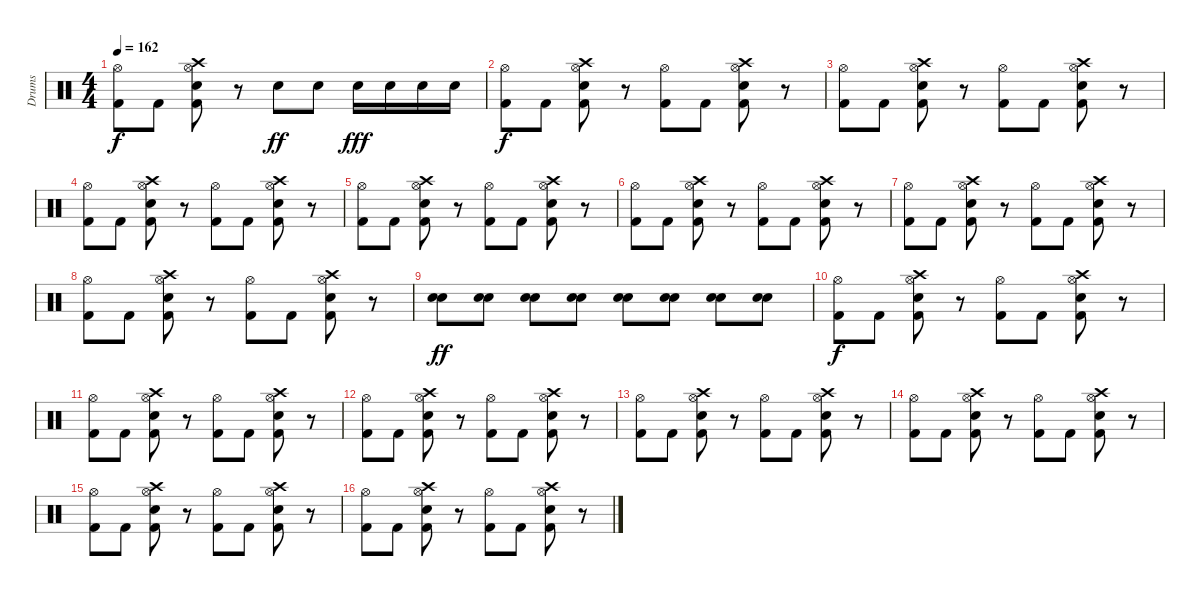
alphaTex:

\track ("Drums" "Drums") {instrument percussion}
\staff {score}
\articulation defaults
\ts (4 4)
\tempo 162
\clef neutral
\ks c
("Hi-Hat (open)" "Kick (hit) 2").8{dy f} "Kick (hit) 2".8 ("Hi-Hat (open)" "Crash high (hit)" "Snare (hit) 2" "Kick (hit) 2").8 r.8 "Snare (hit) 2".8{dy ff} "Snare (hit) 2".8 "Snare (hit) 2".16{dy fff} "Snare (hit) 2".16 "Snare (hit) 2".16 "Snare (hit) 2".16 |
("Hi-Hat (open)" "Kick (hit) 2").8{dy f} "Kick (hit) 2".8 ("Hi-Hat (open)" "Crash high (hit)" "Snare (hit) 2" "Kick (hit) 2").8 r.8 ("Hi-Hat (open)" "Kick (hit) 2").8 "Kick (hit) 2".8 ("Hi-Hat (open)" "Crash high (hit)" "Snare (hit) 2" "Kick (hit) 2").8 r.8 |
("Hi-Hat (open)" "Kick (hit) 2").8 "Kick (hit) 2".8 ("Hi-Hat (open)" "Crash high (hit)" "Snare (hit) 2" "Kick (hit) 2").8 r.8 ("Hi-Hat (open)" "Kick (hit) 2").8 "Kick (hit) 2".8 ("Hi-Hat (open)" "Crash high (hit)" "Snare (hit) 2" "Kick (hit) 2").8 r.8 |
("Hi-Hat (open)" "Kick (hit) 2").8 "Kick (hit) 2".8 ("Hi-Hat (open)" "Crash high (hit)" "Snare (hit) 2" "Kick (hit) 2").8 r.8 ("Hi-Hat (open)" "Kick (hit) 2").8 "Kick (hit) 2".8 ("Hi-Hat (open)" "Crash high (hit)" "Snare (hit) 2" "Kick (hit) 2").8 r.8 |
("Hi-Hat (open)" "Kick (hit) 2").8 "Kick (hit) 2".8 ("Hi-Hat (open)" "Crash high (hit)" "Snare (hit) 2" "Kick (hit) 2").8 r.8 ("Hi-Hat (open)" "Kick (hit) 2").8 "Kick (hit) 2".8 ("Hi-Hat (open)" "Crash high (hit)" "Snare (hit) 2" "Kick (hit) 2").8 r.8 |
("Hi-Hat (open)" "Kick (hit) 2").8 "Kick (hit) 2".8 ("Hi-Hat (open)" "Crash high (hit)" "Snare (hit) 2" "Kick (hit) 2").8 r.8 ("Hi-Hat (open)" "Kick (hit) 2").8 "Kick (hit) 2".8 ("Hi-Hat (open)" "Crash high (hit)" "Snare (hit) 2" "Kick (hit) 2").8 r.8 |
("Hi-Hat (open)" "Kick (hit) 2").8 "Kick (hit) 2".8 ("Hi-Hat (open)" "Crash high (hit)" "Snare (hit) 2" "Kick (hit) 2").8 r.8 ("Hi-Hat (open)" "Kick (hit) 2").8 "Kick (hit) 2".8 ("Hi-Hat (open)" "Crash high (hit)" "Snare (hit) 2" "Kick (hit) 2").8 r.8 |
("Hi-Hat (open)" "Kick (hit) 2").8 "Kick (hit) 2".8 ("Hi-Hat (open)" "Crash high (hit)" "Snare (hit) 2" "Kick (hit) 2").8 r.8 ("Hi-Hat (open)" "Kick (hit) 2").8 "Kick (hit) 2".8 ("Hi-Hat (open)" "Crash high (hit)" "Snare (hit) 2" "Kick (hit) 2").8 r.8 |
("Electric Snare (hit)" "Snare (hit) 2").8{dy ff} ("Electric Snare (hit)" "Snare (hit) 2").8 ("Electric Snare (hit)" "Snare (hit) 2").8 ("Electric Snare (hit)" "Snare (hit) 2").8 ("Electric Snare (hit)" "Snare (hit) 2").8 ("Electric Snare (hit)" "Snare (hit) 2").8 ("Electric Snare (hit)" "Snare (hit) 2").8 ("Electric Snare (hit)" "Snare (hit) 2").8 |
("Hi-Hat (open)" "Kick (hit) 2").8{dy f} "Kick (hit) 2".8 ("Hi-Hat (open)" "Crash high (hit)" "Snare (hit) 2" "Kick (hit) 2").8 r.8 ("Hi-Hat (open)" "Kick (hit) 2").8 "Kick (hit) 2".8 ("Hi-Hat (open)" "Crash high (hit)" "Snare (hit) 2" "Kick (hit) 2").8 r.8 |
("Hi-Hat (open)" "Kick (hit) 2").8 "Kick (hit) 2".8 ("Hi-Hat (open)" "Crash high (hit)" "Snare (hit) 2" "Kick (hit) 2").8 r.8 ("Hi-Hat (open)" "Kick (hit) 2").8 "Kick (hit) 2".8 ("Hi-Hat (open)" "Crash high (hit)" "Snare (hit) 2" "Kick (hit) 2").8 r.8 |
("Hi-Hat (open)" "Kick (hit) 2").8 "Kick (hit) 2".8 ("Hi-Hat (open)" "Crash high (hit)" "Snare (hit) 2" "Kick (hit) 2").8 r.8 ("Hi-Hat (open)" "Kick (hit) 2").8 "Kick (hit) 2".8 ("Hi-Hat (open)" "Crash high (hit)" "Snare (hit) 2" "Kick (hit) 2").8 r.8 |
("Hi-Hat (open)" "Kick (hit) 2").8 "Kick (hit) 2".8 ("Hi-Hat (open)" "Crash high (hit)" "Snare (hit) 2" "Kick (hit) 2").8 r.8 ("Hi-Hat (open)" "Kick (hit) 2").8 "Kick (hit) 2".8 ("Hi-Hat (open)" "Crash high (hit)" "Snare (hit) 2" "Kick (hit) 2").8 r.8 |
("Hi-Hat (open)" "Kick (hit) 2").8 "Kick (hit) 2".8 ("Hi-Hat (open)" "Crash high (hit)" "Snare (hit) 2" "Kick (hit) 2").8 r.8 ("Hi-Hat (open)" "Kick (hit) 2").8 "Kick (hit) 2".8 ("Hi-Hat (open)" "Crash high (hit)" "Snare (hit) 2" "Kick (hit) 2").8 r.8 |
("Hi-Hat (open)" "Kick (hit) 2").8 "Kick (hit) 2".8 ("Hi-Hat (open)" "Crash high (hit)" "Snare (hit) 2" "Kick (hit) 2").8 r.8 ("Hi-Hat (open)" "Kick (hit) 2").8 "Kick (hit) 2".8 ("Hi-Hat (open)" "Crash high (hit)" "Snare (hit) 2" "Kick (hit) 2").8 r.8 |
("Hi-Hat (open)" "Kick (hit) 2").8 "Kick (hit) 2".8 ("Hi-Hat (open)" "Crash high (hit)" "Snare (hit) 2" "Kick (hit) 2").8 r.8 ("Hi-Hat (open)" "Kick (hit) 2").8 "Kick (hit) 2".8 ("Hi-Hat (open)" "Crash high (hit)" "Snare (hit) 2" "Kick (hit) 2").8 r.8
